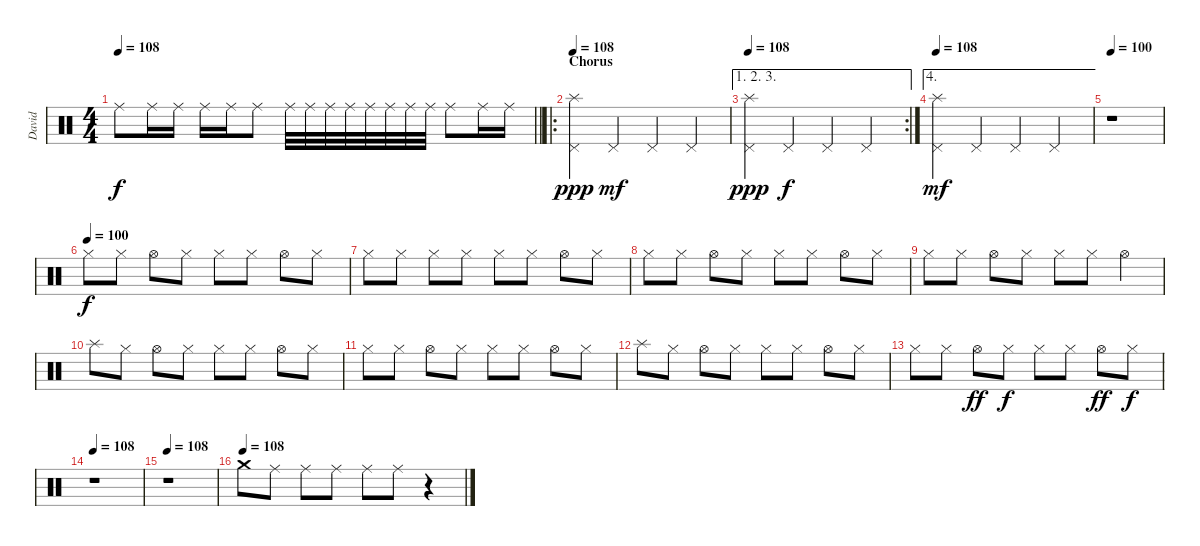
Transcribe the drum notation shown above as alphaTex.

\track ("David" "David") {instrument percussion}
\staff {score}
\articulation defaults
\ts (4 4)
\tempo 108
\clef neutral
\barLineRight lightlight
\ks c "Ride (middle)".8{dy f} "Ride (middle)".16 "Ride (middle)".16 "Ride (middle)".16 "Ride (middle)".16 "Ride (middle)".8 "Ride (middle)".32 "Ride (middle)".32 "Ride (middle)".32 "Ride (middle)".32 "Ride (middle)".32 "Ride (middle)".32 "Ride (middle)".32 "Ride (middle)".32 "Ride (middle)".8 "Ride (middle)".16 "Ride (middle)".16
|
\ro
\section ("" "Chorus")
\tempo 108
("Splash (hit)" "Pedal Hi-Hat (hit)").4{dy ppp} "Pedal Hi-Hat (hit)".4{dy mf} "Pedal Hi-Hat (hit)".4 "Pedal Hi-Hat (hit)".4 |
\ae (1 2 3)
\rc 2
\tempo 108
("Splash (hit)" "Pedal Hi-Hat (hit)").4{dy ppp} "Pedal Hi-Hat (hit)".4{dy f} "Pedal Hi-Hat (hit)".4 "Pedal Hi-Hat (hit)".4 |
\ae 4
\tempo 108
("Splash (hit)" "Pedal Hi-Hat (hit)").4{dy mf} "Pedal Hi-Hat (hit)".4 "Pedal Hi-Hat (hit)".4 "Pedal Hi-Hat (hit)".4 |
\tempo 100
r.1 |
\tempo (100)
"Hi-Hat (closed)".8{dy f} "Hi-Hat (closed)".8 "Hi-Hat (open)".8 "Hi-Hat (closed)".8 "Hi-Hat (closed)".8 "Hi-Hat (closed)".8 "Hi-Hat (open)".8 "Hi-Hat (closed)".8 |
"Hi-Hat (closed)".8 "Hi-Hat (closed)".8 "Hi-Hat (closed)".8 "Hi-Hat (closed)".8 "Hi-Hat (closed)".8 "Hi-Hat (closed)".8 "Hi-Hat (open)".8 "Hi-Hat (closed)".8 |
"Hi-Hat (closed)".8 "Hi-Hat (closed)".8 "Hi-Hat (open)".8 "Hi-Hat (closed)".8 "Hi-Hat (closed)".8 "Hi-Hat (closed)".8 "Hi-Hat (open)".8 "Hi-Hat (closed)".8 |
"Hi-Hat (closed)".8 "Hi-Hat (closed)".8 "Hi-Hat (open)".8 "Hi-Hat (closed)".8 "Hi-Hat (closed)".8 "Hi-Hat (closed)".8 "Hi-Hat (open)".4 |
"Splash (hit)".8 "Hi-Hat (closed)".8 "Hi-Hat (open)".8 "Hi-Hat (closed)".8 "Hi-Hat (closed)".8 "Hi-Hat (closed)".8 "Hi-Hat (open)".8 "Hi-Hat (closed)".8 |
"Hi-Hat (closed)".8 "Hi-Hat (closed)".8 "Hi-Hat (open)".8 "Hi-Hat (closed)".8 "Hi-Hat (closed)".8 "Hi-Hat (closed)".8 "Hi-Hat (open)".8 "Hi-Hat (closed)".8 |
"Splash (hit)".8 "Hi-Hat (closed)".8 "Hi-Hat (open)".8 "Hi-Hat (closed)".8 "Hi-Hat (closed)".8 "Hi-Hat (closed)".8 "Hi-Hat (open)".8 "Hi-Hat (closed)".8 |
"Hi-Hat (closed)".8 "Hi-Hat (closed)".8 "Hi-Hat (open)".8{dy ff} "Hi-Hat (closed)".8{dy f} "Hi-Hat (closed)".8 "Hi-Hat (closed)".8 "Hi-Hat (open)".8{dy ff} "Hi-Hat (closed)".8{dy f} |
\tempo 108
r.1 |
\tempo 108
r.1 |
\tempo (108)
"Crash medium (hit)".8 "Ride (middle)".8 "Ride (middle)".8 "Ride (middle)".8 "Ride (middle)".8 "Ride (middle)".8 r.4
